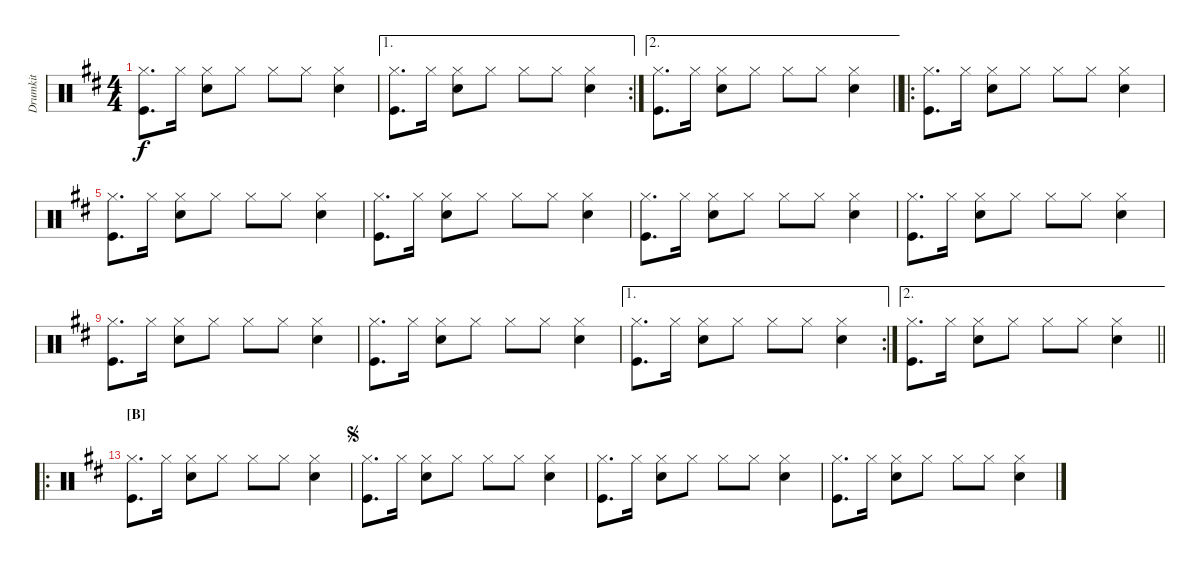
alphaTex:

\bracketExtendMode groupsimilarinstruments
\multiTrackTrackNamePolicy hidden
\firstSystemTrackNameMode fullname
\otherSystemsTrackNameMode fullname
\otherSystemsTrackNameOrientation horizontal
\defaultBarNumberDisplay FirstOfSystem
\track ("Drumkit" "Drums") {instrument percussion}
\staff {score}
\articulation defaults
\ts (4 4)
\tempo (90 hide)
\clef neutral
\ks d
("Hi-Hat (closed)" "Kick (hit)").8{d dy f} "Hi-Hat (closed)".16 ("Hi-Hat (closed)" "Snare (hit) 2").8 "Hi-Hat (closed)".8 "Hi-Hat (closed)".8 "Hi-Hat (closed)".8 ("Hi-Hat (closed)" "Snare (hit) 2").4 |
\ae 1
\rc 2
("Hi-Hat (closed)" "Kick (hit)").8{d} "Hi-Hat (closed)".16 ("Hi-Hat (closed)" "Snare (hit) 2").8 "Hi-Hat (closed)".8 "Hi-Hat (closed)".8 "Hi-Hat (closed)".8 ("Hi-Hat (closed)" "Snare (hit) 2").4 |
\ae 2
\barLineRight lightlight
("Hi-Hat (closed)" "Kick (hit)").8{d} "Hi-Hat (closed)".16 ("Hi-Hat (closed)" "Snare (hit) 2").8 "Hi-Hat (closed)".8 "Hi-Hat (closed)".8 "Hi-Hat (closed)".8 ("Hi-Hat (closed)" "Snare (hit) 2").4 |
\ro
("Hi-Hat (closed)" "Kick (hit)").8{d} "Hi-Hat (closed)".16 ("Hi-Hat (closed)" "Snare (hit) 2").8 "Hi-Hat (closed)".8 "Hi-Hat (closed)".8 "Hi-Hat (closed)".8 ("Hi-Hat (closed)" "Snare (hit) 2").4 |
("Hi-Hat (closed)" "Kick (hit)").8{d} "Hi-Hat (closed)".16 ("Hi-Hat (closed)" "Snare (hit) 2").8 "Hi-Hat (closed)".8 "Hi-Hat (closed)".8 "Hi-Hat (closed)".8 ("Hi-Hat (closed)" "Snare (hit) 2").4 |
("Hi-Hat (closed)" "Kick (hit)").8{d} "Hi-Hat (closed)".16 ("Hi-Hat (closed)" "Snare (hit) 2").8 "Hi-Hat (closed)".8 "Hi-Hat (closed)".8 "Hi-Hat (closed)".8 ("Hi-Hat (closed)" "Snare (hit) 2").4 |
("Hi-Hat (closed)" "Kick (hit)").8{d} "Hi-Hat (closed)".16 ("Hi-Hat (closed)" "Snare (hit) 2").8 "Hi-Hat (closed)".8 "Hi-Hat (closed)".8 "Hi-Hat (closed)".8 ("Hi-Hat (closed)" "Snare (hit) 2").4 |
("Hi-Hat (closed)" "Kick (hit)").8{d} "Hi-Hat (closed)".16 ("Hi-Hat (closed)" "Snare (hit) 2").8 "Hi-Hat (closed)".8 "Hi-Hat (closed)".8 "Hi-Hat (closed)".8 ("Hi-Hat (closed)" "Snare (hit) 2").4 |
("Hi-Hat (closed)" "Kick (hit)").8{d} "Hi-Hat (closed)".16 ("Hi-Hat (closed)" "Snare (hit) 2").8 "Hi-Hat (closed)".8 "Hi-Hat (closed)".8 "Hi-Hat (closed)".8 ("Hi-Hat (closed)" "Snare (hit) 2").4 |
("Hi-Hat (closed)" "Kick (hit)").8{d} "Hi-Hat (closed)".16 ("Hi-Hat (closed)" "Snare (hit) 2").8 "Hi-Hat (closed)".8 "Hi-Hat (closed)".8 "Hi-Hat (closed)".8 ("Hi-Hat (closed)" "Snare (hit) 2").4 |
\ae 1
\rc 2
("Hi-Hat (closed)" "Kick (hit)").8{d} "Hi-Hat (closed)".16 ("Hi-Hat (closed)" "Snare (hit) 2").8 "Hi-Hat (closed)".8 "Hi-Hat (closed)".8 "Hi-Hat (closed)".8 ("Hi-Hat (closed)" "Snare (hit) 2").4 |
\ae 2
\barLineRight lightlight
("Hi-Hat (closed)" "Kick (hit)").8{d} "Hi-Hat (closed)".16 ("Hi-Hat (closed)" "Snare (hit) 2").8 "Hi-Hat (closed)".8 "Hi-Hat (closed)".8 "Hi-Hat (closed)".8 ("Hi-Hat (closed)" "Snare (hit) 2").4 |
\ro
\section ("B" "")
("Hi-Hat (closed)" "Kick (hit)").8{d} "Hi-Hat (closed)".16 ("Hi-Hat (closed)" "Snare (hit) 2").8 "Hi-Hat (closed)".8 "Hi-Hat (closed)".8 "Hi-Hat (closed)".8 ("Hi-Hat (closed)" "Snare (hit) 2").4 |
\jump segno
("Hi-Hat (closed)" "Kick (hit)").8{d} "Hi-Hat (closed)".16 ("Hi-Hat (closed)" "Snare (hit) 2").8 "Hi-Hat (closed)".8 "Hi-Hat (closed)".8 "Hi-Hat (closed)".8 ("Hi-Hat (closed)" "Snare (hit) 2").4 |
("Hi-Hat (closed)" "Kick (hit)").8{d} "Hi-Hat (closed)".16 ("Hi-Hat (closed)" "Snare (hit) 2").8 "Hi-Hat (closed)".8 "Hi-Hat (closed)".8 "Hi-Hat (closed)".8 ("Hi-Hat (closed)" "Snare (hit) 2").4 |
("Hi-Hat (closed)" "Kick (hit)").8{d} "Hi-Hat (closed)".16 ("Hi-Hat (closed)" "Snare (hit) 2").8 "Hi-Hat (closed)".8 "Hi-Hat (closed)".8 "Hi-Hat (closed)".8 ("Hi-Hat (closed)" "Snare (hit) 2").4
